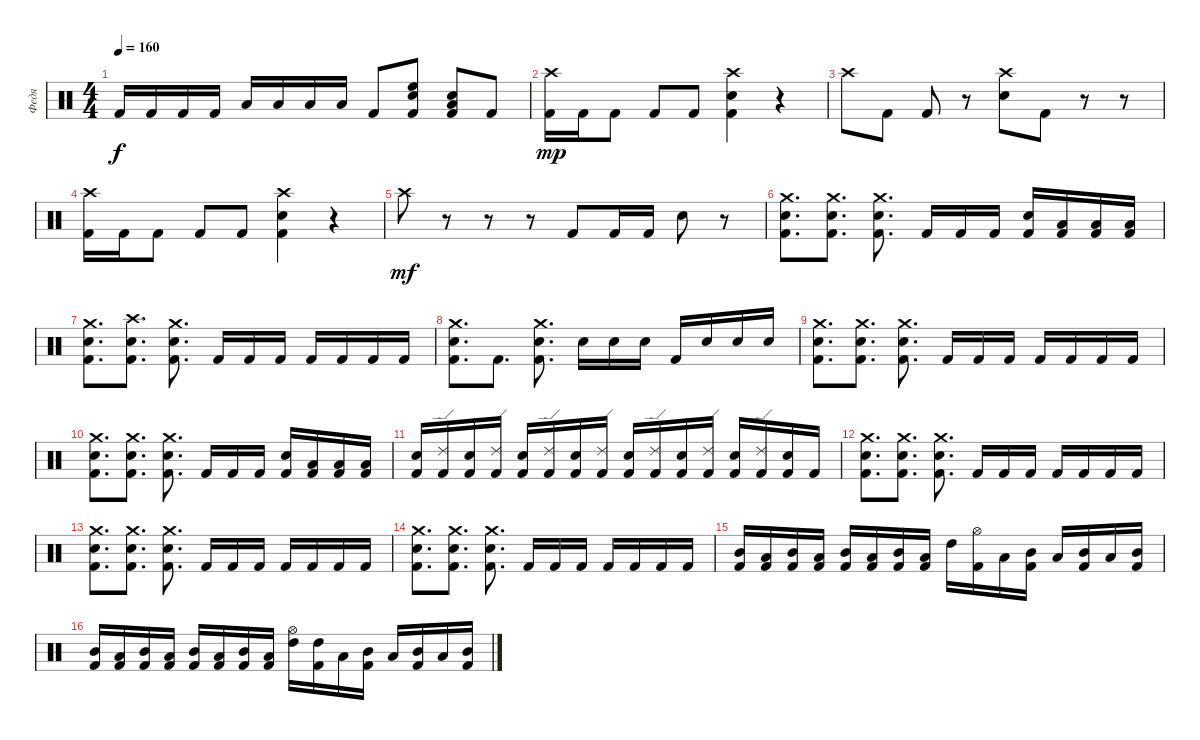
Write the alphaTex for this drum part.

\track ("Федя" "Федя") {instrument percussion}
\staff {score}
\articulation defaults
\ts (4 4)
\tempo 160
\clef neutral
\ks c "Kick (hit) 2".16{dy f} "Kick (hit) 2".16 "Kick (hit) 2".16 "Kick (hit) 2".16 "Low Tom (hit)".16 "Low Tom (hit)".16 "Low Tom (hit)".16 "Low Tom (hit)".16 "Kick (hit) 2".8
("High Floor Tom (hit)" "Electric Snare (hit)" "Kick (hit) 2").8 ("Low Tom (hit)" "Electric Snare (hit)" "Kick (hit) 2").8 "Kick (hit) 2".8 |
("Crash high (hit)" "Kick (hit) 2").16{dy mp} "Kick (hit) 2".16 "Kick (hit) 2".8 "Kick (hit) 2".8 "Kick (hit) 2".8 ("Crash high (hit)" "Electric Snare (hit)" "Kick (hit) 2").4 r.4 |
"Crash high (hit)".8 "Kick (hit) 2".8 "Kick (hit) 2".8 r.8 ("Crash high (hit)" "Electric Snare (hit)").8 "Kick (hit) 2".8 r.8 r.8 |
("Crash high (hit)" "Kick (hit) 2").16 "Kick (hit) 2".16 "Kick (hit) 2".8 "Kick (hit) 2".8 "Kick (hit) 2".8 ("Crash high (hit)" "Electric Snare (hit)" "Kick (hit) 2").4 r.4 |
"Crash high (hit)".8{dy mf} r.8 r.8 r.8 "Kick (hit) 2".8 "Kick (hit) 2".16 "Kick (hit) 2".16 "Electric Snare (hit)".8 r.8 |
("Crash medium (hit)" "Electric Snare (hit)" "Kick (hit) 2").8{d} ("Crash medium (hit)" "Electric Snare (hit)" "Kick (hit) 2").8{d} ("Crash medium (hit)" "Electric Snare (hit)" "Kick (hit) 2").8{d} "Kick (hit) 2".16 "Kick (hit) 2".16 "Kick (hit) 2".16 ("Electric Snare (hit)" "Kick (hit) 2").16 ("Low Tom (hit)" "Kick (hit) 2").16 ("Low Tom (hit)" "Kick (hit) 2").16 ("Low Tom (hit)" "Kick (hit) 2").16 |
("Crash medium (hit)" "Electric Snare (hit)" "Kick (hit) 2").8{d} ("Crash high (hit)" "Electric Snare (hit)" "Kick (hit) 2").8{d} ("Crash medium (hit)" "Electric Snare (hit)" "Kick (hit) 2").8{d} "Kick (hit) 2".16 "Kick (hit) 2".16 "Kick (hit) 2".16 "Kick (hit) 2".16 "Kick (hit) 2".16 "Kick (hit) 2".16 "Kick (hit) 2".16 |
("Crash medium (hit)" "Electric Snare (hit)" "Kick (hit) 2").8{d} "Kick (hit) 2".8{d} ("Crash medium (hit)" "Electric Snare (hit)" "Kick (hit) 2").8{d} "Electric Snare (hit)".16 "Electric Snare (hit)".16 "Electric Snare (hit)".16 "Kick (hit) 2".16 "Electric Snare (hit)".16 "Electric Snare (hit)".16 "Electric Snare (hit)".16 |
("Crash medium (hit)" "Electric Snare (hit)" "Kick (hit) 2").8{d} ("Crash medium (hit)" "Electric Snare (hit)" "Kick (hit) 2").8{d} ("Crash medium (hit)" "Electric Snare (hit)" "Kick (hit) 2").8{d} "Kick (hit) 2".16 "Kick (hit) 2".16 "Kick (hit) 2".16 "Kick (hit) 2".16 "Kick (hit) 2".16 "Kick (hit) 2".16 "Kick (hit) 2".16 |
("Crash medium (hit)" "Electric Snare (hit)" "Kick (hit) 2").8{d} ("Crash medium (hit)" "Electric Snare (hit)" "Kick (hit) 2").8{d} ("Crash medium (hit)" "Electric Snare (hit)" "Kick (hit) 2").8{d} "Kick (hit) 2".16 "Kick (hit) 2".16 "Kick (hit) 2".16 ("Electric Snare (hit)" "Kick (hit) 2").16 ("Low Tom (hit)" "Kick (hit) 2").16 ("Low Tom (hit)" "Kick (hit) 2").16 ("Low Tom (hit)" "Kick (hit) 2").16 |
("Electric Snare (hit)" "Kick (hit) 2").16 ("Ride (edge) 2" "Kick (hit) 2").16 ("Electric Snare (hit)" "Kick (hit) 2").16 ("Ride (edge) 2" "Kick (hit) 2").16 ("Electric Snare (hit)" "Kick (hit) 2").16 ("Ride (edge) 2" "Kick (hit) 2").16 ("Electric Snare (hit)" "Kick (hit) 2").16 ("Ride (edge) 2" "Kick (hit) 2").16 ("Electric Snare (hit)" "Kick (hit) 2").16 ("Ride (edge) 2" "Kick (hit) 2").16 ("Electric Snare (hit)" "Kick (hit) 2").16 ("Ride (edge) 2" "Kick (hit) 2").16 ("Electric Snare (hit)" "Kick (hit) 2").16 ("Ride (edge) 2" "Kick (hit) 2").16 ("Electric Snare (hit)" "Kick (hit) 2").16 "Kick (hit) 2".16 |
("Crash medium (hit)" "Electric Snare (hit)" "Kick (hit) 2").8{d} ("Crash medium (hit)" "Electric Snare (hit)" "Kick (hit) 2").8{d} ("Crash medium (hit)" "Electric Snare (hit)" "Kick (hit) 2").8{d} "Kick (hit) 2".16 "Kick (hit) 2".16 "Kick (hit) 2".16 "Kick (hit) 2".16 "Kick (hit) 2".16 "Kick (hit) 2".16 "Kick (hit) 2".16 |
("Crash medium (hit)" "Electric Snare (hit)" "Kick (hit) 2").8{d} ("Crash medium (hit)" "Electric Snare (hit)" "Kick (hit) 2").8{d} ("Crash medium (hit)" "Electric Snare (hit)" "Kick (hit) 2").8{d} "Kick (hit) 2".16 "Kick (hit) 2".16 "Kick (hit) 2".16 "Kick (hit) 2".16 "Kick (hit) 2".16 "Kick (hit) 2".16 "Kick (hit) 2".16 |
("Crash medium (hit)" "Electric Snare (hit)" "Kick (hit) 2").8{d} ("Crash medium (hit)" "Electric Snare (hit)" "Kick (hit) 2").8{d} ("Crash medium (hit)" "Electric Snare (hit)" "Kick (hit) 2").8{d} "Kick (hit) 2".16 "Kick (hit) 2".16 "Kick (hit) 2".16 "Kick (hit) 2".16 "Kick (hit) 2".16 "Kick (hit) 2".16 "Kick (hit) 2".16 |
("Mid Tom (hit)" "Kick (hit) 2").16 ("Low Tom (hit)" "Kick (hit) 2").16 ("Mid Tom (hit)" "Kick (hit) 2").16 ("Low Tom (hit)" "Kick (hit) 2").16 ("Mid Tom (hit)" "Kick (hit) 2").16 ("Low Tom (hit)" "Kick (hit) 2").16 ("Mid Tom (hit)" "Kick (hit) 2").16 ("Low Tom (hit)" "Kick (hit) 2").16 "High Tom (hit)".16 ("Hi-Hat (open)" "Kick (hit) 2").16 "Low Tom (hit)".16 ("Mid Tom (hit)" "Kick (hit) 2").16 "Low Tom (hit)".16 ("Mid Tom (hit)" "Kick (hit) 2").16 "Low Tom (hit)".16 ("Mid Tom (hit)" "Kick (hit) 2").16 |
("Mid Tom (hit)" "Kick (hit) 2").16 ("Low Tom (hit)" "Kick (hit) 2").16 ("Mid Tom (hit)" "Kick (hit) 2").16 ("Low Tom (hit)" "Kick (hit) 2").16 ("Mid Tom (hit)" "Kick (hit) 2").16 ("Low Tom (hit)" "Kick (hit) 2").16 ("Mid Tom (hit)" "Kick (hit) 2").16 ("Low Tom (hit)" "Kick (hit) 2").16 ("Hi-Hat (open)" "High Tom (hit)").16 ("High Tom (hit)" "Kick (hit) 2").16 "Low Tom (hit)".16 ("Mid Tom (hit)" "Kick (hit) 2").16 "Low Tom (hit)".16 ("Mid Tom (hit)" "Kick (hit) 2").16 "Low Tom (hit)".16 ("Mid Tom (hit)" "Kick (hit) 2").16
